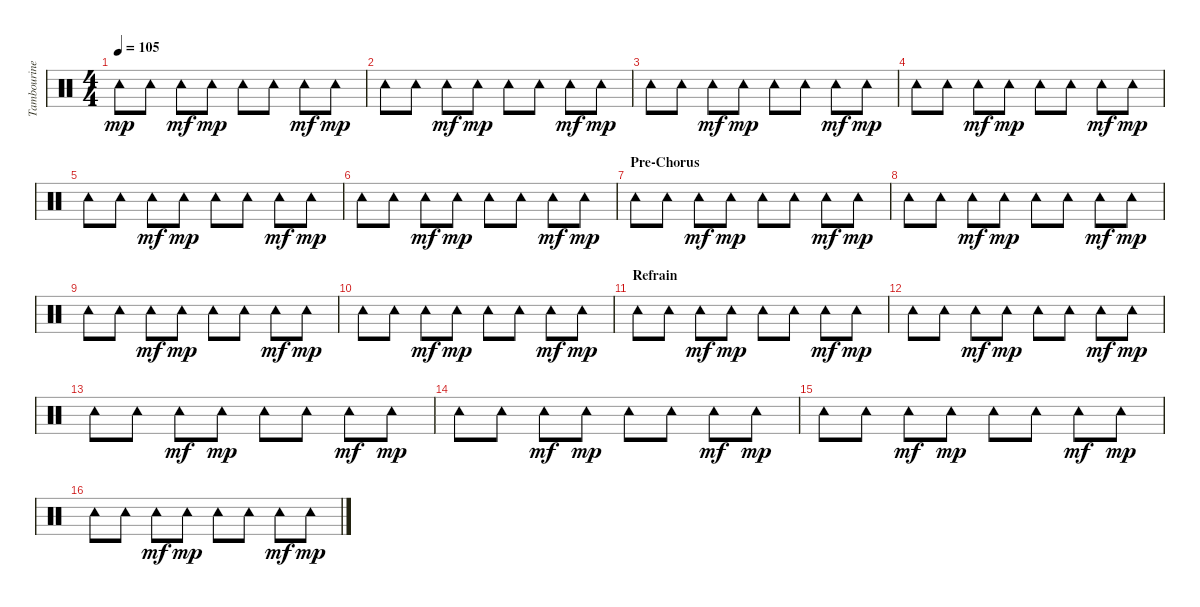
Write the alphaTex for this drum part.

\track ("Tambourine" "Tambourine") {instrument percussion}
\staff {score}
\articulation defaults
\ts (4 4)
\tempo 105
\clef neutral
\ks c "Tambourine (hit)".8{dy mp} "Tambourine (hit)".8 "Tambourine (hit)".8{dy mf} "Tambourine (hit)".8{dy mp} "Tambourine (hit)".8 "Tambourine (hit)".8 "Tambourine (hit)".8{dy mf} "Tambourine (hit)".8{dy mp}
|
"Tambourine (hit)".8 "Tambourine (hit)".8 "Tambourine (hit)".8{dy mf} "Tambourine (hit)".8{dy mp} "Tambourine (hit)".8 "Tambourine (hit)".8 "Tambourine (hit)".8{dy mf} "Tambourine (hit)".8{dy mp} |
"Tambourine (hit)".8 "Tambourine (hit)".8 "Tambourine (hit)".8{dy mf} "Tambourine (hit)".8{dy mp} "Tambourine (hit)".8 "Tambourine (hit)".8 "Tambourine (hit)".8{dy mf} "Tambourine (hit)".8{dy mp} |
"Tambourine (hit)".8 "Tambourine (hit)".8 "Tambourine (hit)".8{dy mf} "Tambourine (hit)".8{dy mp} "Tambourine (hit)".8 "Tambourine (hit)".8 "Tambourine (hit)".8{dy mf} "Tambourine (hit)".8{dy mp} |
"Tambourine (hit)".8 "Tambourine (hit)".8 "Tambourine (hit)".8{dy mf} "Tambourine (hit)".8{dy mp} "Tambourine (hit)".8 "Tambourine (hit)".8 "Tambourine (hit)".8{dy mf} "Tambourine (hit)".8{dy mp} |
"Tambourine (hit)".8 "Tambourine (hit)".8 "Tambourine (hit)".8{dy mf} "Tambourine (hit)".8{dy mp} "Tambourine (hit)".8 "Tambourine (hit)".8 "Tambourine (hit)".8{dy mf} "Tambourine (hit)".8{dy mp} |
\section ("" "Pre-Chorus")
"Tambourine (hit)".8 "Tambourine (hit)".8 "Tambourine (hit)".8{dy mf} "Tambourine (hit)".8{dy mp} "Tambourine (hit)".8 "Tambourine (hit)".8 "Tambourine (hit)".8{dy mf} "Tambourine (hit)".8{dy mp} |
"Tambourine (hit)".8 "Tambourine (hit)".8 "Tambourine (hit)".8{dy mf} "Tambourine (hit)".8{dy mp} "Tambourine (hit)".8 "Tambourine (hit)".8 "Tambourine (hit)".8{dy mf} "Tambourine (hit)".8{dy mp} |
"Tambourine (hit)".8 "Tambourine (hit)".8 "Tambourine (hit)".8{dy mf} "Tambourine (hit)".8{dy mp} "Tambourine (hit)".8 "Tambourine (hit)".8 "Tambourine (hit)".8{dy mf} "Tambourine (hit)".8{dy mp} |
"Tambourine (hit)".8 "Tambourine (hit)".8 "Tambourine (hit)".8{dy mf} "Tambourine (hit)".8{dy mp} "Tambourine (hit)".8 "Tambourine (hit)".8 "Tambourine (hit)".8{dy mf} "Tambourine (hit)".8{dy mp} |
\section ("" "Refrain")
"Tambourine (hit)".8 "Tambourine (hit)".8 "Tambourine (hit)".8{dy mf} "Tambourine (hit)".8{dy mp} "Tambourine (hit)".8 "Tambourine (hit)".8 "Tambourine (hit)".8{dy mf} "Tambourine (hit)".8{dy mp} |
"Tambourine (hit)".8 "Tambourine (hit)".8 "Tambourine (hit)".8{dy mf} "Tambourine (hit)".8{dy mp} "Tambourine (hit)".8 "Tambourine (hit)".8 "Tambourine (hit)".8{dy mf} "Tambourine (hit)".8{dy mp} |
"Tambourine (hit)".8 "Tambourine (hit)".8 "Tambourine (hit)".8{dy mf} "Tambourine (hit)".8{dy mp} "Tambourine (hit)".8 "Tambourine (hit)".8 "Tambourine (hit)".8{dy mf} "Tambourine (hit)".8{dy mp} |
"Tambourine (hit)".8 "Tambourine (hit)".8 "Tambourine (hit)".8{dy mf} "Tambourine (hit)".8{dy mp} "Tambourine (hit)".8 "Tambourine (hit)".8 "Tambourine (hit)".8{dy mf} "Tambourine (hit)".8{dy mp} |
"Tambourine (hit)".8 "Tambourine (hit)".8 "Tambourine (hit)".8{dy mf} "Tambourine (hit)".8{dy mp} "Tambourine (hit)".8 "Tambourine (hit)".8 "Tambourine (hit)".8{dy mf} "Tambourine (hit)".8{dy mp} |
"Tambourine (hit)".8 "Tambourine (hit)".8 "Tambourine (hit)".8{dy mf} "Tambourine (hit)".8{dy mp} "Tambourine (hit)".8 "Tambourine (hit)".8 "Tambourine (hit)".8{dy mf} "Tambourine (hit)".8{dy mp}
